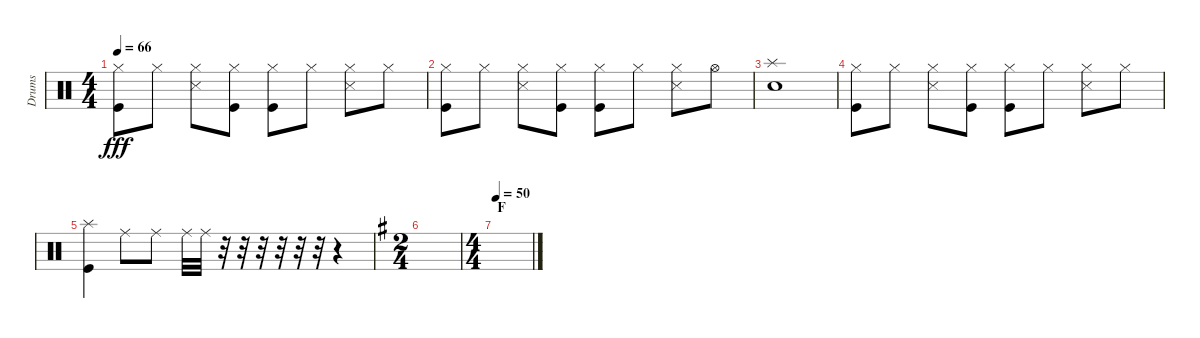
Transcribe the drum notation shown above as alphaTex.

\track ("Drums" "Drums") {instrument percussion}
\staff {score}
\articulation defaults
\ts (4 4)
\tempo 66
\clef neutral
\ks c
("Hi-Hat (closed)" "Kick (hit)").8{dy fff} "Hi-Hat (closed)".8 ("Hi-Hat (closed)" "Snare (side stick) 3").8 ("Hi-Hat (closed)" "Kick (hit)").8 ("Hi-Hat (closed)" "Kick (hit)").8 "Hi-Hat (closed)".8 ("Hi-Hat (closed)" "Snare (side stick) 3").8 "Hi-Hat (closed)".8 |
("Hi-Hat (closed)" "Kick (hit)").8 "Hi-Hat (closed)".8 ("Hi-Hat (closed)" "Snare (side stick) 3").8 ("Hi-Hat (closed)" "Kick (hit)").8 ("Hi-Hat (closed)" "Kick (hit)").8 "Hi-Hat (closed)".8 ("Hi-Hat (closed)" "Snare (side stick) 3").8 "Hi-Hat (open)".8 |
("Splash (hit)" "Snare (hit) 2").1 |
("Hi-Hat (closed)" "Kick (hit)").8 "Hi-Hat (closed)".8 ("Hi-Hat (closed)" "Snare (side stick) 3").8 ("Hi-Hat (closed)" "Kick (hit)").8 ("Hi-Hat (closed)" "Kick (hit)").8 "Hi-Hat (closed)".8 ("Hi-Hat (closed)" "Snare (side stick) 3").8 "Hi-Hat (closed)".8 |
("Splash (hit)" "Kick (hit)").4 "Ride (middle)".8 "Ride (middle)".8 "Ride (middle)".32 "Ride (middle)".32 r.32 r.32 r.32 r.32 r.32 r.32 r.4 |
\ts (2 4)
\ks g
|
\ts (4 4)
\section ("" "F")
\tempo 50
